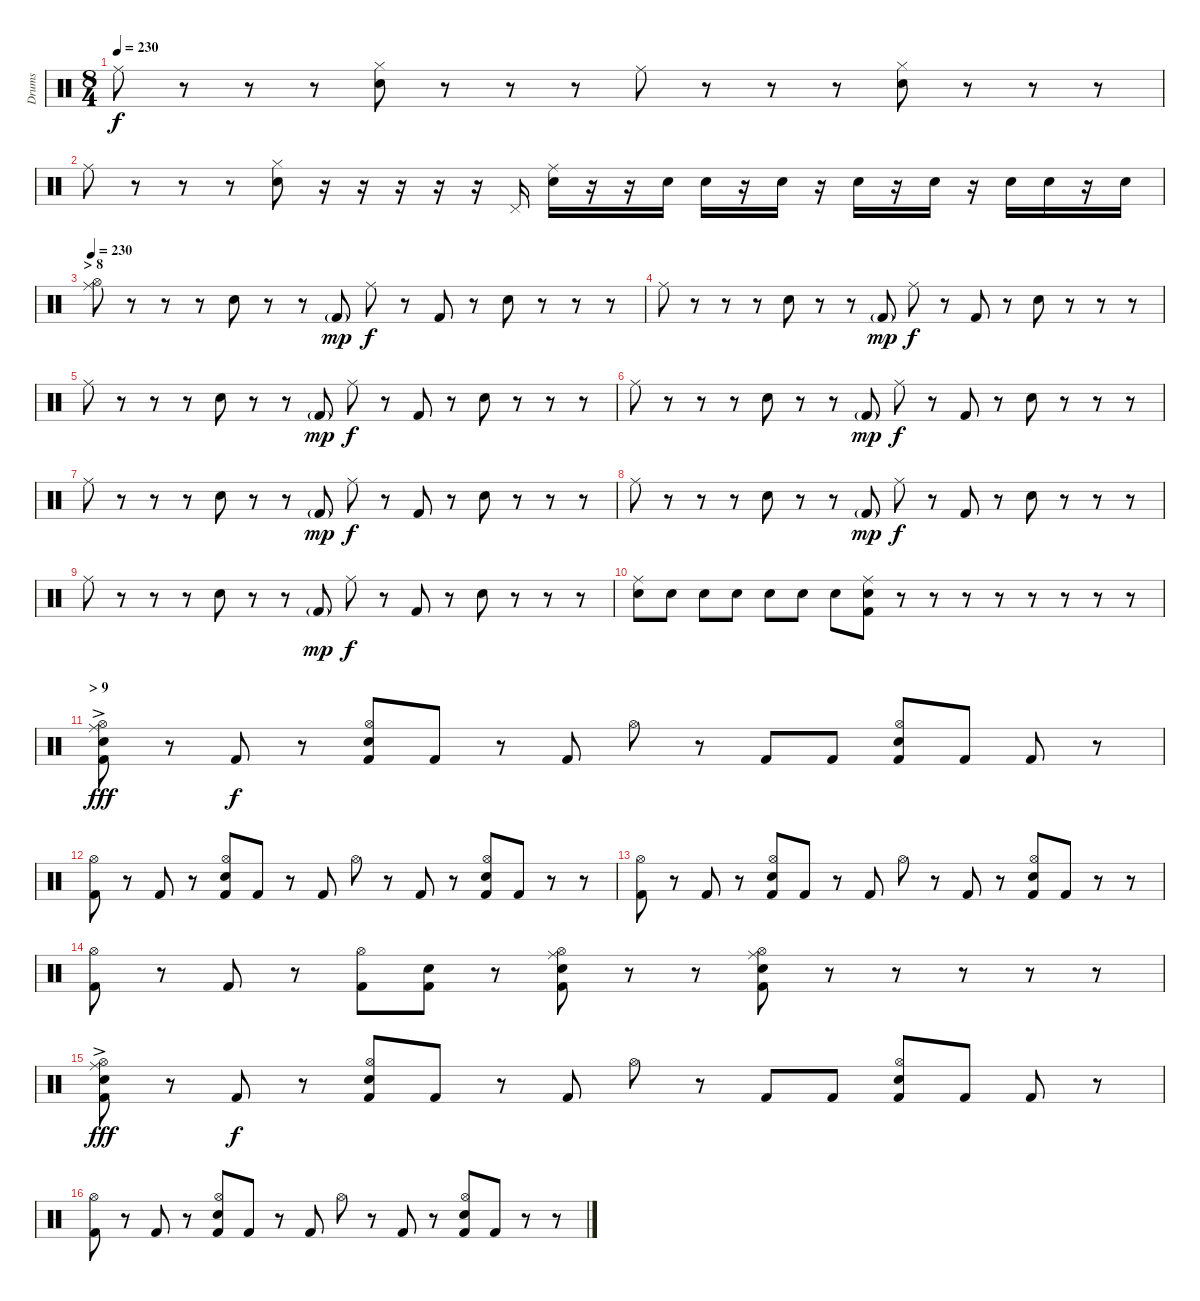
\track ("Drums" "Drums") {instrument percussion}
\staff {score}
\articulation defaults
\ts (8 4)
\tempo 230
\clef neutral
\ks c "Ride (middle)".8{dy f}
r.8 r.8 r.8 ("Hi-Hat (closed)" "Electric Snare (hit)").8 r.8 r.8 r.8 "Ride (middle)".8 r.8 r.8 r.8 ("Hi-Hat (closed)" "Electric Snare (hit)").8 r.8 r.8 r.8 |
"Ride (middle)".8 r.8 r.8 r.8 ("Hi-Hat (closed)" "Electric Snare (hit)").8 r.16 r.16 r.16 r.16 r.16 "Pedal Hi-Hat (hit)".16 ("Ride (middle)" "Electric Snare (hit)").16 r.16 r.16 "Electric Snare (hit)".16 "Electric Snare (hit)".16 r.16 "Electric Snare (hit)".16 r.16 "Electric Snare (hit)".16 r.16 "Electric Snare (hit)".16 r.16 "Electric Snare (hit)".16 "Electric Snare (hit)".16 r.16 "Electric Snare (hit)".16 |
\section ("" "> 8")
\tempo 230
("Hi-Hat (open)" "Ride (middle)").8 r.8 r.8 r.8 "Electric Snare (hit)".8 r.8 r.8 "Kick (hit) 2"{g}.8{dy mp} "Ride (middle)".8{dy f} r.8 "Kick (hit) 2".8 r.8 "Electric Snare (hit)".8 r.8 r.8 r.8 |
"Ride (middle)".8 r.8 r.8 r.8 "Electric Snare (hit)".8 r.8 r.8 "Kick (hit) 2"{g}.8{dy mp} "Ride (middle)".8{dy f} r.8 "Kick (hit) 2".8 r.8 "Electric Snare (hit)".8 r.8 r.8 r.8 |
"Ride (middle)".8 r.8 r.8 r.8 "Electric Snare (hit)".8 r.8 r.8 "Kick (hit) 2"{g}.8{dy mp} "Ride (middle)".8{dy f} r.8 "Kick (hit) 2".8 r.8 "Electric Snare (hit)".8 r.8 r.8 r.8 |
"Ride (middle)".8 r.8 r.8 r.8 "Electric Snare (hit)".8 r.8 r.8 "Kick (hit) 2"{g}.8{dy mp} "Ride (middle)".8{dy f} r.8 "Kick (hit) 2".8 r.8 "Electric Snare (hit)".8 r.8 r.8 r.8 |
"Ride (middle)".8 r.8 r.8 r.8 "Electric Snare (hit)".8 r.8 r.8 "Kick (hit) 2"{g}.8{dy mp} "Ride (middle)".8{dy f} r.8 "Kick (hit) 2".8 r.8 "Electric Snare (hit)".8 r.8 r.8 r.8 |
"Ride (middle)".8 r.8 r.8 r.8 "Electric Snare (hit)".8 r.8 r.8 "Kick (hit) 2"{g}.8{dy mp} "Ride (middle)".8{dy f} r.8 "Kick (hit) 2".8 r.8 "Electric Snare (hit)".8 r.8 r.8 r.8 |
"Ride (middle)".8 r.8 r.8 r.8 "Electric Snare (hit)".8 r.8 r.8 "Kick (hit) 2"{g}.8{dy mp} "Ride (middle)".8{dy f} r.8 "Kick (hit) 2".8 r.8 "Electric Snare (hit)".8 r.8 r.8 r.8 |
("Ride (middle)" "Electric Snare (hit)").8 "Electric Snare (hit)".8 "Electric Snare (hit)".8 "Electric Snare (hit)".8 "Electric Snare (hit)".8 "Electric Snare (hit)".8 "Electric Snare (hit)".8 ("Ride (middle)" "Kick (hit) 2" "Electric Snare (hit)").8 r.8 r.8 r.8 r.8 r.8 r.8 r.8 r.8 |
\section ("" "> 9")
("Hi-Hat (open)"{ac} "Ride (middle)"{ac} "Electric Snare (hit)"{ac} "Kick (hit) 2"{ac}).8{dy fff} r.8 "Kick (hit) 2".8{dy f} r.8 ("Hi-Hat (open)" "Electric Snare (hit)" "Kick (hit) 2").8 "Kick (hit) 2".8 r.8 "Kick (hit) 2".8 "Hi-Hat (open)".8 r.8 "Kick (hit) 2".8 "Kick (hit) 2".8 ("Hi-Hat (open)" "Electric Snare (hit)" "Kick (hit) 2").8 "Kick (hit) 2".8 "Kick (hit) 2".8 r.8 |
("Hi-Hat (open)" "Kick (hit) 2").8 r.8 "Kick (hit) 2".8 r.8 ("Hi-Hat (open)" "Electric Snare (hit)" "Kick (hit) 2").8 "Kick (hit) 2".8 r.8 "Kick (hit) 2".8 "Hi-Hat (open)".8 r.8 "Kick (hit) 2".8 r.8 ("Hi-Hat (open)" "Electric Snare (hit)" "Kick (hit) 2").8 "Kick (hit) 2".8 r.8 r.8 |
("Hi-Hat (open)" "Kick (hit) 2").8 r.8 "Kick (hit) 2".8 r.8 ("Hi-Hat (open)" "Electric Snare (hit)" "Kick (hit) 2").8 "Kick (hit) 2".8 r.8 "Kick (hit) 2".8 "Hi-Hat (open)".8 r.8 "Kick (hit) 2".8 r.8 ("Hi-Hat (open)" "Electric Snare (hit)" "Kick (hit) 2").8 "Kick (hit) 2".8 r.8 r.8 |
("Hi-Hat (open)" "Kick (hit) 2").8 r.8 "Kick (hit) 2".8 r.8 ("Hi-Hat (open)" "Kick (hit) 2").8 ("Electric Snare (hit)" "Kick (hit) 2").8 r.8 ("Hi-Hat (open)" "Ride (middle)" "Electric Snare (hit)" "Kick (hit) 2").8 r.8 r.8 ("Hi-Hat (open)" "Ride (middle)" "Electric Snare (hit)" "Kick (hit) 2").8 r.8 r.8 r.8 r.8 r.8 |
("Hi-Hat (open)"{ac} "Ride (middle)"{ac} "Electric Snare (hit)"{ac} "Kick (hit) 2"{ac}).8{dy fff} r.8 "Kick (hit) 2".8{dy f} r.8 ("Hi-Hat (open)" "Electric Snare (hit)" "Kick (hit) 2").8 "Kick (hit) 2".8 r.8 "Kick (hit) 2".8 "Hi-Hat (open)".8 r.8 "Kick (hit) 2".8 "Kick (hit) 2".8 ("Hi-Hat (open)" "Electric Snare (hit)" "Kick (hit) 2").8 "Kick (hit) 2".8 "Kick (hit) 2".8 r.8 |
("Hi-Hat (open)" "Kick (hit) 2").8 r.8 "Kick (hit) 2".8 r.8 ("Hi-Hat (open)" "Electric Snare (hit)" "Kick (hit) 2").8 "Kick (hit) 2".8 r.8 "Kick (hit) 2".8 "Hi-Hat (open)".8 r.8 "Kick (hit) 2".8 r.8 ("Hi-Hat (open)" "Electric Snare (hit)" "Kick (hit) 2").8 "Kick (hit) 2".8 r.8 r.8
